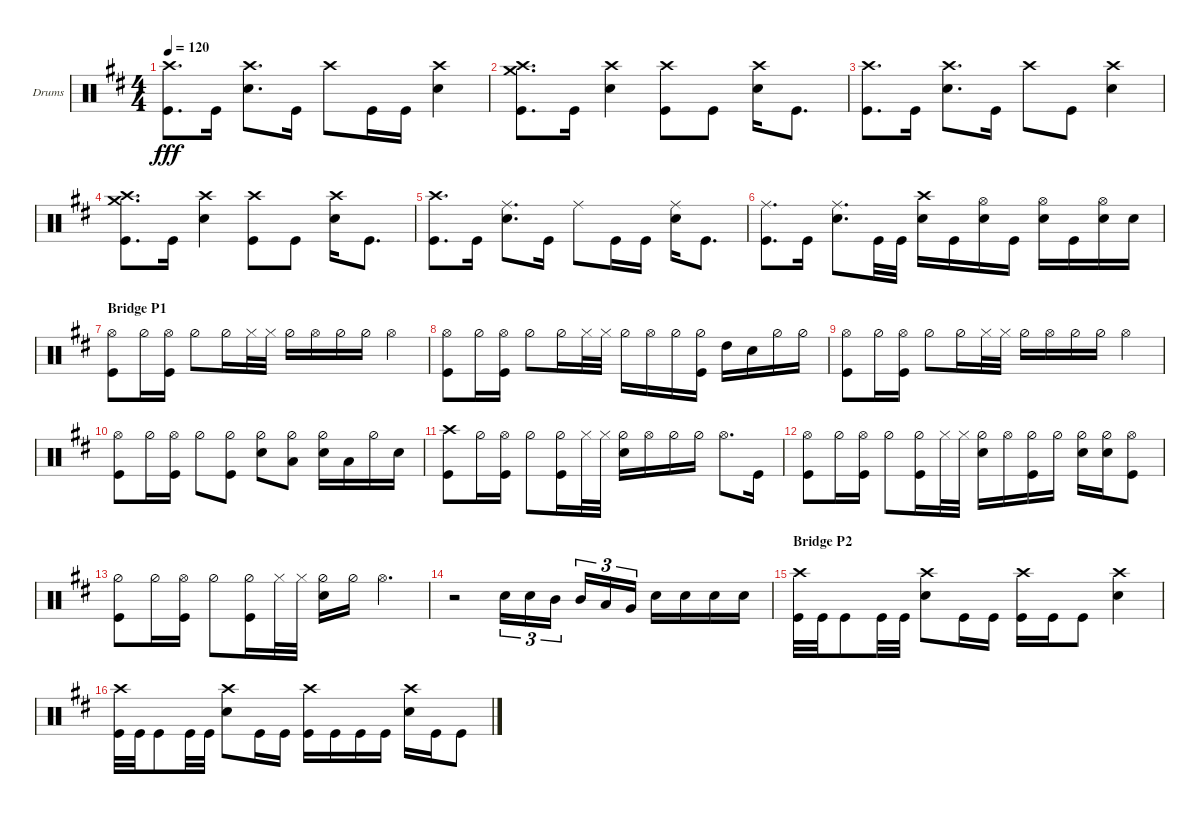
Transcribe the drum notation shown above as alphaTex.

\defaultSystemsLayout 4
\bracketExtendMode groupsimilarinstruments
\firstSystemTrackNameOrientation horizontal
\otherSystemsTrackNameOrientation horizontal
\track ("Garrett" "Drums") {instrument percussion}
\staff {score}
\articulation defaults
\ts (4 4)
\tempo 120
\clef neutral
\ks bminor
("Crash high (hit)" "Kick (hit)").8{d dy fff} "Kick (hit)".16 ("Snare (hit) 2" "Crash high (hit)").8{d} "Kick (hit)".16 "Crash high (hit)".8 "Kick (hit)".16 "Kick (hit)".16 ("Snare (hit) 2" "Crash high (hit)").4 |
("Crash high (hit)" "Kick (hit)" "Crash medium (hit)").8{d} "Kick (hit)".16 ("Snare (hit) 2" "Crash high (hit)").4 ("Crash high (hit)" "Kick (hit)").8 "Kick (hit)".8 ("Snare (hit) 2" "Crash high (hit)").16 "Kick (hit)".8{d} |
("Crash high (hit)" "Kick (hit)").8{d} "Kick (hit)".16 ("Snare (hit) 2" "Crash high (hit)").8{d} "Kick (hit)".16 "Crash high (hit)".8 "Kick (hit)".8 ("Snare (hit) 2" "Crash high (hit)").4 |
("Crash high (hit)" "Kick (hit)" "Crash medium (hit)").8{d} "Kick (hit)".16 ("Snare (hit) 2" "Crash high (hit)").4 ("Crash high (hit)" "Kick (hit)").8 "Kick (hit)".8 ("Snare (hit) 2" "Crash high (hit)").16 "Kick (hit)".8{d} |
("Crash high (hit)" "Kick (hit)").8{d} "Kick (hit)".16 ("Snare (hit) 2" "Ride (middle)").8{d} "Kick (hit)".16 "Ride (middle)".8 "Kick (hit)".16 "Kick (hit)".16 ("Snare (hit) 2" "Ride (middle)").16 "Kick (hit)".8{d} |
("Kick (hit)" "Ride (middle)").8{d} "Kick (hit)".16 ("Snare (hit) 2" "Ride (middle)").8{d} "Kick (hit)".32 "Kick (hit)".32 ("Snare (hit) 2" "Crash high (hit)").16 "Kick (hit)".16 ("Snare (hit) 2" "Hi-Hat (open)").16 "Kick (hit)".16 ("Snare (hit) 2" "Hi-Hat (open)").16 "Kick (hit)".16 ("Snare (hit) 2" "Hi-Hat (open)").16 "Snare (hit) 2".16 |
\section ("" "Bridge P1")
("Hi-Hat (open)" "Kick (hit)").8 "Hi-Hat (half)".16 ("Hi-Hat (open)" "Kick (hit)").16 "Hi-Hat (half)".8 "Hi-Hat (half)".16 "Hi-Hat (closed)".32 "Hi-Hat (closed)".32 "Hi-Hat (half)".16 "Hi-Hat (open)".16 "Hi-Hat (half)".16 "Hi-Hat (half)".16 "Hi-Hat (open)".4 |
("Hi-Hat (open)" "Kick (hit)").8 "Hi-Hat (half)".16 ("Hi-Hat (open)" "Kick (hit)").16 "Hi-Hat (half)".8 "Hi-Hat (half)".16 "Hi-Hat (closed)".32 "Hi-Hat (closed)".32 "Hi-Hat (half)".16 "Hi-Hat (open)".16 "Hi-Hat (half)".16 ("Hi-Hat (half)" "Kick (hit)").16 "High Tom (hit)".16 "Snare (hit) 2".16 "Hi-Hat (half)".16 "Hi-Hat (half)".16 |
("Hi-Hat (open)" "Kick (hit)").8 "Hi-Hat (half)".16 ("Hi-Hat (open)" "Kick (hit)").16 "Hi-Hat (half)".8 "Hi-Hat (half)".16 "Hi-Hat (closed)".32 "Hi-Hat (closed)".32 "Hi-Hat (half)".16 "Hi-Hat (open)".16 "Hi-Hat (half)".16 "Hi-Hat (half)".16 "Hi-Hat (open)".4 |
("Hi-Hat (open)" "Kick (hit)").8 "Hi-Hat (half)".16 ("Hi-Hat (open)" "Kick (hit)").16 "Hi-Hat (half)".8 ("Kick (hit)" "Hi-Hat (half)").8 ("Snare (hit) 2" "Hi-Hat (half)").8 ("Low Tom (hit)" "Hi-Hat (half)").8 ("Snare (hit) 2" "Hi-Hat (half)").16 "Low Tom (hit)".16 "Hi-Hat (half)".16 "Snare (hit) 2".16 |
("Kick (hit)" "Crash high (hit)").8 "Hi-Hat (half)".16 ("Hi-Hat (open)" "Kick (hit)").16 "Hi-Hat (half)".8 ("Hi-Hat (half)" "Kick (hit)").16 "Hi-Hat (closed)".32 "Hi-Hat (closed)".32 ("Hi-Hat (half)" "Snare (hit) 2").16 "Hi-Hat (open)".16 "Hi-Hat (half)".16 "Hi-Hat (half)".16 "Hi-Hat (open)".8{d} "Kick (hit)".16 |
("Hi-Hat (open)" "Kick (hit)").8 "Hi-Hat (half)".16 ("Hi-Hat (open)" "Kick (hit)").16 "Hi-Hat (half)".8 ("Hi-Hat (half)" "Kick (hit)").16 "Hi-Hat (closed)".32 "Hi-Hat (closed)".32 ("Hi-Hat (half)" "Snare (hit) 2").16 "Hi-Hat (open)".16 ("Hi-Hat (half)" "Kick (hit)").16 "Hi-Hat (half)".16 ("Hi-Hat (half)" "Snare (hit) 2").16 ("Snare (hit) 2" "Hi-Hat (half)").16 ("Kick (hit)" "Hi-Hat (open)").8 |
("Kick (hit)" "Hi-Hat (half)").8 "Hi-Hat (half)".16 ("Hi-Hat (open)" "Kick (hit)").16 "Hi-Hat (half)".8 ("Hi-Hat (half)" "Kick (hit)").16 "Hi-Hat (closed)".32 "Hi-Hat (closed)".32 ("Hi-Hat (half)" "Snare (hit) 2").16 "Hi-Hat (half)".16 "Hi-Hat (open)".4{d} |
r.2 "Snare (hit) 2".16{tu (3 2)} "Snare (hit) 2".16{tu (3 2)} "Mid Tom (hit)".16{tu (3 2)} "Mid Tom (hit)".16{tu (3 2)} "Low Tom (hit)".16{tu (3 2)} "Very Low Tom (hit)".16{tu (3 2)} "Snare (hit) 2".16 "Snare (hit) 2".16 "Snare (hit) 2".16 "Snare (hit) 2".16 |
\section ("" "Bridge P2")
("Kick (hit)" "Crash high (hit)").32 "Kick (hit)".32 "Kick (hit)".8 "Kick (hit)".32 "Kick (hit)".32 ("Snare (hit) 2" "Crash high (hit)").8 "Kick (hit)".16 "Kick (hit)".16 ("Kick (hit)" "Crash high (hit)").16 "Kick (hit)".16 "Kick (hit)".8 ("Snare (hit) 2" "Crash high (hit)").4 |
("Kick (hit)" "Crash high (hit)").32 "Kick (hit)".32 "Kick (hit)".8 "Kick (hit)".32 "Kick (hit)".32 ("Snare (hit) 2" "Crash high (hit)").8 "Kick (hit)".16 "Kick (hit)".16 ("Kick (hit)" "Crash high (hit)").16 "Kick (hit)".16 "Kick (hit)".16 "Kick (hit)".16 ("Snare (hit) 2" "Crash high (hit)").16 "Kick (hit)".16 "Kick (hit)".8
